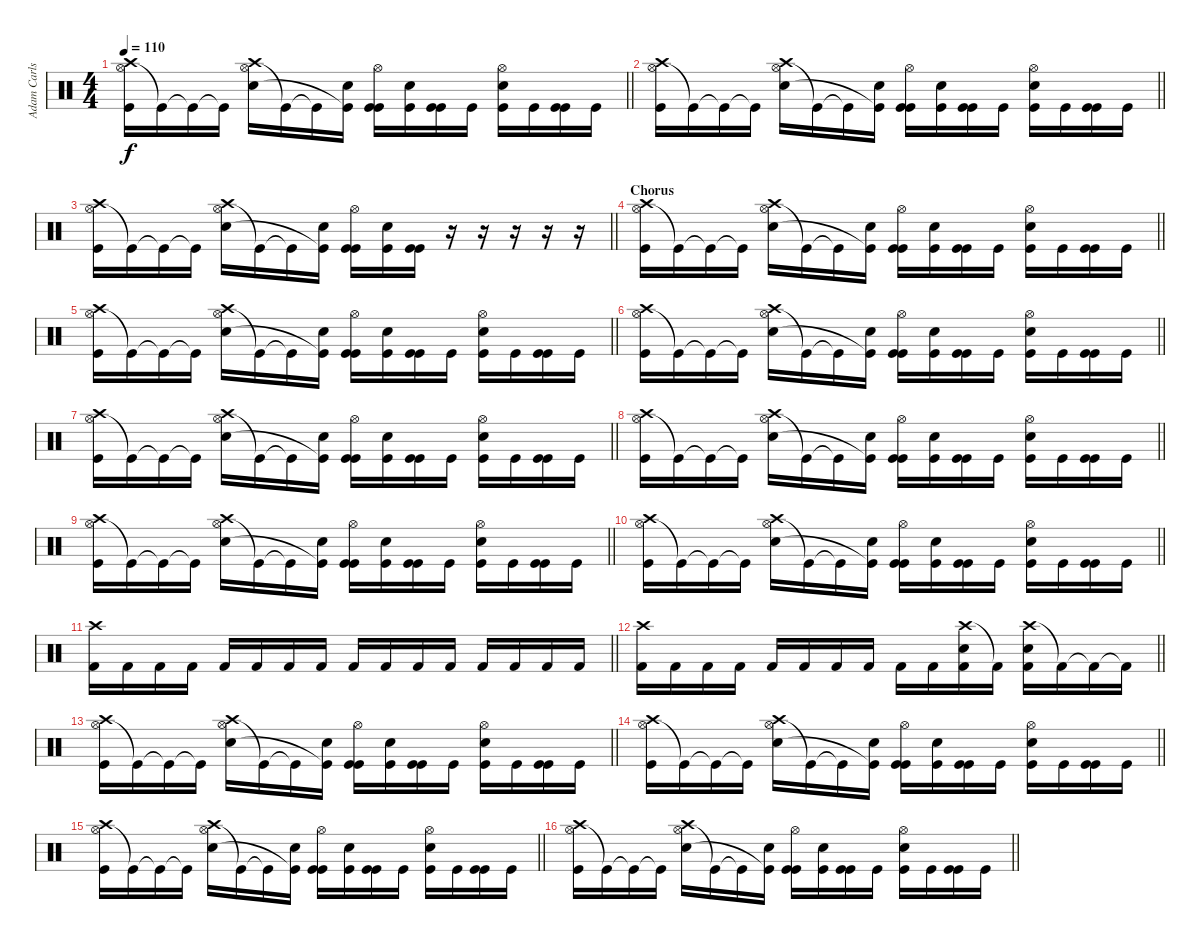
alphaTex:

\track ("Adam Carlson(Natural Drums)" "Adam Carls") {instrument percussion}
\staff {score}
\articulation defaults
\ts (4 4)
\tempo 110
\clef neutral
\barLineRight lightlight
\ks c
("Hi-Hat (open)" "Kick (hit)" "Crash high (hit)").16{dy f} "Kick (hit)"{t}.16 "Kick (hit)"{t}.16 "Kick (hit)"{t}.16 ("Hi-Hat (open)" "Electric Snare (hit)" "Crash high (hit)").16 "Kick (hit)"{t}.16 "Kick (hit)"{t}.16 ("Electric Snare (hit)" "Kick (hit)"{t}).16 ("Hi-Hat (open)" "Kick (hit)" "Kick (hit)").16 ("Electric Snare (hit)" "Kick (hit)").16 ("Kick (hit)" "Kick (hit)").16 "Kick (hit)".16 ("Hi-Hat (open)" "Electric Snare (hit)" "Kick (hit)").16 "Kick (hit)".16 ("Kick (hit)" "Kick (hit)").16 "Kick (hit)".16 |
\barLineRight lightlight
("Hi-Hat (open)" "Kick (hit)" "Crash high (hit)").16 "Kick (hit)"{t}.16 "Kick (hit)"{t}.16 "Kick (hit)"{t}.16 ("Hi-Hat (open)" "Electric Snare (hit)" "Crash high (hit)").16 "Kick (hit)"{t}.16 "Kick (hit)"{t}.16 ("Electric Snare (hit)" "Kick (hit)"{t}).16 ("Hi-Hat (open)" "Kick (hit)" "Kick (hit)").16 ("Electric Snare (hit)" "Kick (hit)").16 ("Kick (hit)" "Kick (hit)").16 "Kick (hit)".16 ("Hi-Hat (open)" "Electric Snare (hit)" "Kick (hit)").16 "Kick (hit)".16 ("Kick (hit)" "Kick (hit)").16 "Kick (hit)".16 |
\barLineRight lightlight
("Hi-Hat (open)" "Kick (hit)" "Crash high (hit)").16 "Kick (hit)"{t}.16 "Kick (hit)"{t}.16 "Kick (hit)"{t}.16 ("Hi-Hat (open)" "Electric Snare (hit)" "Crash high (hit)").16 "Kick (hit)"{t}.16 "Kick (hit)"{t}.16 ("Electric Snare (hit)" "Kick (hit)"{t}).16 ("Hi-Hat (open)" "Kick (hit)" "Kick (hit)").16 ("Electric Snare (hit)" "Kick (hit)").16 ("Kick (hit)" "Kick (hit)").16 r.16 r.16 r.16 r.16 r.16 |
\section ("" "Chorus")
\barLineRight lightlight
("Hi-Hat (open)" "Kick (hit)" "Crash high (hit)").16 "Kick (hit)"{t}.16 "Kick (hit)"{t}.16 "Kick (hit)"{t}.16 ("Hi-Hat (open)" "Electric Snare (hit)" "Crash high (hit)").16 "Kick (hit)"{t}.16 "Kick (hit)"{t}.16 ("Electric Snare (hit)" "Kick (hit)"{t}).16 ("Hi-Hat (open)" "Kick (hit)" "Kick (hit)").16 ("Electric Snare (hit)" "Kick (hit)").16 ("Kick (hit)" "Kick (hit)").16 "Kick (hit)".16 ("Hi-Hat (open)" "Electric Snare (hit)" "Kick (hit)").16 "Kick (hit)".16 ("Kick (hit)" "Kick (hit)").16 "Kick (hit)".16 |
\barLineRight lightlight
("Hi-Hat (open)" "Kick (hit)" "Crash high (hit)").16 "Kick (hit)"{t}.16 "Kick (hit)"{t}.16 "Kick (hit)"{t}.16 ("Hi-Hat (open)" "Electric Snare (hit)" "Crash high (hit)").16 "Kick (hit)"{t}.16 "Kick (hit)"{t}.16 ("Electric Snare (hit)" "Kick (hit)"{t}).16 ("Hi-Hat (open)" "Kick (hit)" "Kick (hit)").16 ("Electric Snare (hit)" "Kick (hit)").16 ("Kick (hit)" "Kick (hit)").16 "Kick (hit)".16 ("Hi-Hat (open)" "Electric Snare (hit)" "Kick (hit)").16 "Kick (hit)".16 ("Kick (hit)" "Kick (hit)").16 "Kick (hit)".16 |
\barLineRight lightlight
("Hi-Hat (open)" "Kick (hit)" "Crash high (hit)").16 "Kick (hit)"{t}.16 "Kick (hit)"{t}.16 "Kick (hit)"{t}.16 ("Hi-Hat (open)" "Electric Snare (hit)" "Crash high (hit)").16 "Kick (hit)"{t}.16 "Kick (hit)"{t}.16 ("Electric Snare (hit)" "Kick (hit)"{t}).16 ("Hi-Hat (open)" "Kick (hit)" "Kick (hit)").16 ("Electric Snare (hit)" "Kick (hit)").16 ("Kick (hit)" "Kick (hit)").16 "Kick (hit)".16 ("Hi-Hat (open)" "Electric Snare (hit)" "Kick (hit)").16 "Kick (hit)".16 ("Kick (hit)" "Kick (hit)").16 "Kick (hit)".16 |
\barLineRight lightlight
("Hi-Hat (open)" "Kick (hit)" "Crash high (hit)").16 "Kick (hit)"{t}.16 "Kick (hit)"{t}.16 "Kick (hit)"{t}.16 ("Hi-Hat (open)" "Electric Snare (hit)" "Crash high (hit)").16 "Kick (hit)"{t}.16 "Kick (hit)"{t}.16 ("Electric Snare (hit)" "Kick (hit)"{t}).16 ("Hi-Hat (open)" "Kick (hit)" "Kick (hit)").16 ("Electric Snare (hit)" "Kick (hit)").16 ("Kick (hit)" "Kick (hit)").16 "Kick (hit)".16 ("Hi-Hat (open)" "Electric Snare (hit)" "Kick (hit)").16 "Kick (hit)".16 ("Kick (hit)" "Kick (hit)").16 "Kick (hit)".16 |
\barLineRight lightlight
("Hi-Hat (open)" "Kick (hit)" "Crash high (hit)").16 "Kick (hit)"{t}.16 "Kick (hit)"{t}.16 "Kick (hit)"{t}.16 ("Hi-Hat (open)" "Electric Snare (hit)" "Crash high (hit)").16 "Kick (hit)"{t}.16 "Kick (hit)"{t}.16 ("Electric Snare (hit)" "Kick (hit)"{t}).16 ("Hi-Hat (open)" "Kick (hit)" "Kick (hit)").16 ("Electric Snare (hit)" "Kick (hit)").16 ("Kick (hit)" "Kick (hit)").16 "Kick (hit)".16 ("Hi-Hat (open)" "Electric Snare (hit)" "Kick (hit)").16 "Kick (hit)".16 ("Kick (hit)" "Kick (hit)").16 "Kick (hit)".16 |
\barLineRight lightlight
("Hi-Hat (open)" "Kick (hit)" "Crash high (hit)").16 "Kick (hit)"{t}.16 "Kick (hit)"{t}.16 "Kick (hit)"{t}.16 ("Hi-Hat (open)" "Electric Snare (hit)" "Crash high (hit)").16 "Kick (hit)"{t}.16 "Kick (hit)"{t}.16 ("Electric Snare (hit)" "Kick (hit)"{t}).16 ("Hi-Hat (open)" "Kick (hit)" "Kick (hit)").16 ("Electric Snare (hit)" "Kick (hit)").16 ("Kick (hit)" "Kick (hit)").16 "Kick (hit)".16 ("Hi-Hat (open)" "Electric Snare (hit)" "Kick (hit)").16 "Kick (hit)".16 ("Kick (hit)" "Kick (hit)").16 "Kick (hit)".16 |
\barLineRight lightlight
("Hi-Hat (open)" "Kick (hit)" "Crash high (hit)").16 "Kick (hit)"{t}.16 "Kick (hit)"{t}.16 "Kick (hit)"{t}.16 ("Hi-Hat (open)" "Electric Snare (hit)" "Crash high (hit)").16 "Kick (hit)"{t}.16 "Kick (hit)"{t}.16 ("Electric Snare (hit)" "Kick (hit)"{t}).16 ("Hi-Hat (open)" "Kick (hit)" "Kick (hit)").16 ("Electric Snare (hit)" "Kick (hit)").16 ("Kick (hit)" "Kick (hit)").16 "Kick (hit)".16 ("Hi-Hat (open)" "Electric Snare (hit)" "Kick (hit)").16 "Kick (hit)".16 ("Kick (hit)" "Kick (hit)").16 "Kick (hit)".16 |
\barLineRight lightlight
("Crash high (hit)" "Kick (hit) 2").16 "Kick (hit) 2".16 "Kick (hit) 2".16 "Kick (hit) 2".16 "Kick (hit) 2".16 "Kick (hit) 2".16 "Kick (hit) 2".16 "Kick (hit) 2".16 "Kick (hit) 2".16 "Kick (hit) 2".16 "Kick (hit) 2".16 "Kick (hit) 2".16 "Kick (hit) 2".16 "Kick (hit) 2".16 "Kick (hit) 2".16 "Kick (hit) 2".16 |
\barLineRight lightlight
("Crash high (hit)" "Kick (hit) 2").16 "Kick (hit) 2".16 "Kick (hit) 2".16 "Kick (hit) 2".16 "Kick (hit) 2".16 "Kick (hit) 2".16 "Kick (hit) 2".16 "Kick (hit) 2".16 "Kick (hit) 2".16 "Kick (hit) 2".16 ("Crash high (hit)" "Electric Snare (hit)" "Kick (hit) 2").16 "Kick (hit) 2"{t}.16 ("Crash high (hit)" "Electric Snare (hit)" "Kick (hit) 2").16 "Kick (hit) 2"{t}.16 "Kick (hit) 2"{t}.16 "Kick (hit) 2"{t}.16 |
\barLineRight lightlight
("Hi-Hat (open)" "Kick (hit)" "Crash high (hit)").16 "Kick (hit)"{t}.16 "Kick (hit)"{t}.16 "Kick (hit)"{t}.16 ("Hi-Hat (open)" "Electric Snare (hit)" "Crash high (hit)").16 "Kick (hit)"{t}.16 "Kick (hit)"{t}.16 ("Electric Snare (hit)" "Kick (hit)"{t}).16 ("Hi-Hat (open)" "Kick (hit)" "Kick (hit)").16 ("Electric Snare (hit)" "Kick (hit)").16 ("Kick (hit)" "Kick (hit)").16 "Kick (hit)".16 ("Hi-Hat (open)" "Electric Snare (hit)" "Kick (hit)").16 "Kick (hit)".16 ("Kick (hit)" "Kick (hit)").16 "Kick (hit)".16 |
\barLineRight lightlight
("Hi-Hat (open)" "Kick (hit)" "Crash high (hit)").16 "Kick (hit)"{t}.16 "Kick (hit)"{t}.16 "Kick (hit)"{t}.16 ("Hi-Hat (open)" "Electric Snare (hit)" "Crash high (hit)").16 "Kick (hit)"{t}.16 "Kick (hit)"{t}.16 ("Electric Snare (hit)" "Kick (hit)"{t}).16 ("Hi-Hat (open)" "Kick (hit)" "Kick (hit)").16 ("Electric Snare (hit)" "Kick (hit)").16 ("Kick (hit)" "Kick (hit)").16 "Kick (hit)".16 ("Hi-Hat (open)" "Electric Snare (hit)" "Kick (hit)").16 "Kick (hit)".16 ("Kick (hit)" "Kick (hit)").16 "Kick (hit)".16 |
\barLineRight lightlight
("Hi-Hat (open)" "Kick (hit)" "Crash high (hit)").16 "Kick (hit)"{t}.16 "Kick (hit)"{t}.16 "Kick (hit)"{t}.16 ("Hi-Hat (open)" "Electric Snare (hit)" "Crash high (hit)").16 "Kick (hit)"{t}.16 "Kick (hit)"{t}.16 ("Electric Snare (hit)" "Kick (hit)"{t}).16 ("Hi-Hat (open)" "Kick (hit)" "Kick (hit)").16 ("Electric Snare (hit)" "Kick (hit)").16 ("Kick (hit)" "Kick (hit)").16 "Kick (hit)".16 ("Hi-Hat (open)" "Electric Snare (hit)" "Kick (hit)").16 "Kick (hit)".16 ("Kick (hit)" "Kick (hit)").16 "Kick (hit)".16 |
\barLineRight lightlight
("Hi-Hat (open)" "Kick (hit)" "Crash high (hit)").16 "Kick (hit)"{t}.16 "Kick (hit)"{t}.16 "Kick (hit)"{t}.16 ("Hi-Hat (open)" "Electric Snare (hit)" "Crash high (hit)").16 "Kick (hit)"{t}.16 "Kick (hit)"{t}.16 ("Electric Snare (hit)" "Kick (hit)"{t}).16 ("Hi-Hat (open)" "Kick (hit)" "Kick (hit)").16 ("Electric Snare (hit)" "Kick (hit)").16 ("Kick (hit)" "Kick (hit)").16 "Kick (hit)".16 ("Hi-Hat (open)" "Electric Snare (hit)" "Kick (hit)").16 "Kick (hit)".16 ("Kick (hit)" "Kick (hit)").16 "Kick (hit)".16
